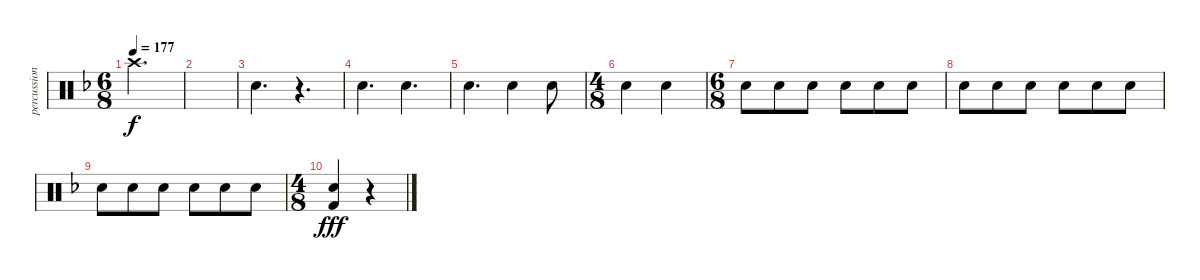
\track ("percussion" "percussion") {instrument percussion}
\staff {score}
\articulation defaults
\ts (6 8)
\tempo 177
\clef neutral
\ks dminor "Crash high (hit)".2{d dy f}
|
|
"Snare (hit) 2".4{d} r.4{d} |
"Snare (hit) 2".4{d} "Snare (hit) 2".4{d} |
"Snare (hit) 2".4{d} "Snare (hit) 2".4 "Snare (hit) 2".8 |
\ts (4 8)
"Snare (hit) 2".4 "Snare (hit) 2".4 |
\ts (6 8)
"Snare (hit) 2".8 "Snare (hit) 2".8 "Snare (hit) 2".8 "Snare (hit) 2".8 "Snare (hit) 2".8 "Snare (hit) 2".8 |
"Snare (hit) 2".8 "Snare (hit) 2".8 "Snare (hit) 2".8 "Snare (hit) 2".8 "Snare (hit) 2".8 "Snare (hit) 2".8 |
"Snare (hit) 2".8 "Snare (hit) 2".8 "Snare (hit) 2".8 "Snare (hit) 2".8 "Snare (hit) 2".8 "Snare (hit) 2".8 |
\ts (4 8)
("Snare (hit) 2" "Kick (hit) 2").4{dy fff} r.4
